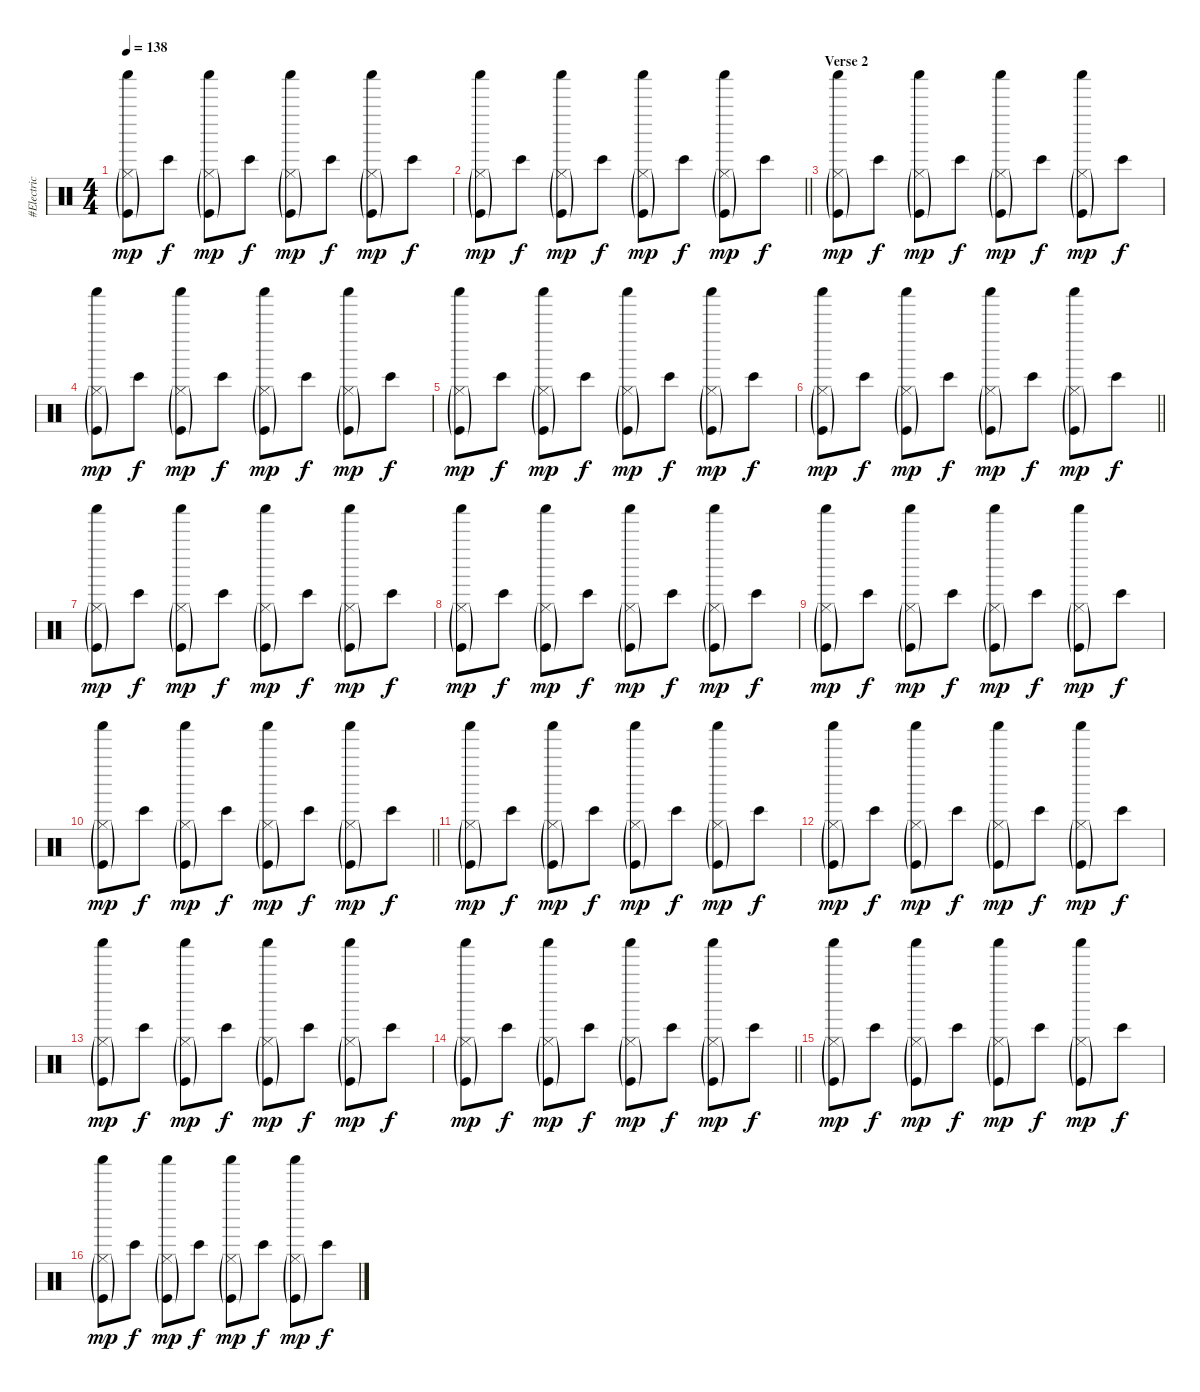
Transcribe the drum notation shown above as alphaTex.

\track ("#Electric Drums" "#Electric ") {instrument percussion}
\staff {score}
\articulation defaults
\ts (4 4)
\tempo 138
\clef neutral
\ks c
("Kick (hit)"{g} "Shaker (hit)" "Hi-Hat (closed)"{g}).8{dy mp} "Bongo High (hit)".8{dy f} ("Kick (hit)"{g} "Shaker (hit)" "Hi-Hat (closed)"{g}).8{dy mp} "Bongo High (hit)".8{dy f} ("Kick (hit)"{g} "Shaker (hit)" "Hi-Hat (closed)"{g}).8{dy mp} "Bongo High (hit)".8{dy f} ("Kick (hit)"{g} "Shaker (hit)" "Hi-Hat (closed)"{g}).8{dy mp} "Bongo High (hit)".8{dy f} |
\barLineRight lightlight
("Kick (hit)"{g} "Shaker (hit)" "Hi-Hat (closed)"{g}).8{dy mp} "Bongo High (hit)".8{dy f} ("Kick (hit)"{g} "Shaker (hit)" "Hi-Hat (closed)"{g}).8{dy mp} "Bongo High (hit)".8{dy f} ("Kick (hit)"{g} "Shaker (hit)" "Hi-Hat (closed)"{g}).8{dy mp} "Bongo High (hit)".8{dy f} ("Kick (hit)"{g} "Shaker (hit)" "Hi-Hat (closed)"{g}).8{dy mp} "Bongo High (hit)".8{dy f} |
\section ("" "Verse 2")
("Kick (hit)"{g} "Shaker (hit)" "Hi-Hat (closed)"{g}).8{dy mp} "Bongo High (hit)".8{dy f} ("Kick (hit)"{g} "Shaker (hit)" "Hi-Hat (closed)"{g}).8{dy mp} "Bongo High (hit)".8{dy f} ("Kick (hit)"{g} "Shaker (hit)" "Hi-Hat (closed)"{g}).8{dy mp} "Bongo High (hit)".8{dy f} ("Kick (hit)"{g} "Shaker (hit)" "Hi-Hat (closed)"{g}).8{dy mp} "Bongo High (hit)".8{dy f} |
("Kick (hit)"{g} "Shaker (hit)" "Hi-Hat (closed)"{g}).8{dy mp} "Bongo High (hit)".8{dy f} ("Kick (hit)"{g} "Shaker (hit)" "Hi-Hat (closed)"{g}).8{dy mp} "Bongo High (hit)".8{dy f} ("Kick (hit)"{g} "Shaker (hit)" "Hi-Hat (closed)"{g}).8{dy mp} "Bongo High (hit)".8{dy f} ("Kick (hit)"{g} "Shaker (hit)" "Hi-Hat (closed)"{g}).8{dy mp} "Bongo High (hit)".8{dy f} |
("Kick (hit)"{g} "Shaker (hit)" "Hi-Hat (closed)"{g}).8{dy mp} "Bongo High (hit)".8{dy f} ("Kick (hit)"{g} "Shaker (hit)" "Hi-Hat (closed)"{g}).8{dy mp} "Bongo High (hit)".8{dy f} ("Kick (hit)"{g} "Shaker (hit)" "Hi-Hat (closed)"{g}).8{dy mp} "Bongo High (hit)".8{dy f} ("Kick (hit)"{g} "Shaker (hit)" "Hi-Hat (closed)"{g}).8{dy mp} "Bongo High (hit)".8{dy f} |
\barLineRight lightlight
("Kick (hit)"{g} "Shaker (hit)" "Hi-Hat (closed)"{g}).8{dy mp} "Bongo High (hit)".8{dy f} ("Kick (hit)"{g} "Shaker (hit)" "Hi-Hat (closed)"{g}).8{dy mp} "Bongo High (hit)".8{dy f} ("Kick (hit)"{g} "Shaker (hit)" "Hi-Hat (closed)"{g}).8{dy mp} "Bongo High (hit)".8{dy f} ("Kick (hit)"{g} "Shaker (hit)" "Hi-Hat (closed)"{g}).8{dy mp} "Bongo High (hit)".8{dy f} |
("Kick (hit)"{g} "Shaker (hit)" "Hi-Hat (closed)"{g}).8{dy mp} "Bongo High (hit)".8{dy f} ("Kick (hit)"{g} "Shaker (hit)" "Hi-Hat (closed)"{g}).8{dy mp} "Bongo High (hit)".8{dy f} ("Kick (hit)"{g} "Shaker (hit)" "Hi-Hat (closed)"{g}).8{dy mp} "Bongo High (hit)".8{dy f} ("Kick (hit)"{g} "Shaker (hit)" "Hi-Hat (closed)"{g}).8{dy mp} "Bongo High (hit)".8{dy f} |
("Kick (hit)"{g} "Shaker (hit)" "Hi-Hat (closed)"{g}).8{dy mp} "Bongo High (hit)".8{dy f} ("Kick (hit)"{g} "Shaker (hit)" "Hi-Hat (closed)"{g}).8{dy mp} "Bongo High (hit)".8{dy f} ("Kick (hit)"{g} "Shaker (hit)" "Hi-Hat (closed)"{g}).8{dy mp} "Bongo High (hit)".8{dy f} ("Kick (hit)"{g} "Shaker (hit)" "Hi-Hat (closed)"{g}).8{dy mp} "Bongo High (hit)".8{dy f} |
("Kick (hit)"{g} "Shaker (hit)" "Hi-Hat (closed)"{g}).8{dy mp} "Bongo High (hit)".8{dy f} ("Kick (hit)"{g} "Shaker (hit)" "Hi-Hat (closed)"{g}).8{dy mp} "Bongo High (hit)".8{dy f} ("Kick (hit)"{g} "Shaker (hit)" "Hi-Hat (closed)"{g}).8{dy mp} "Bongo High (hit)".8{dy f} ("Kick (hit)"{g} "Shaker (hit)" "Hi-Hat (closed)"{g}).8{dy mp} "Bongo High (hit)".8{dy f} |
\barLineRight lightlight
("Kick (hit)"{g} "Shaker (hit)" "Hi-Hat (closed)"{g}).8{dy mp} "Bongo High (hit)".8{dy f} ("Kick (hit)"{g} "Shaker (hit)" "Hi-Hat (closed)"{g}).8{dy mp} "Bongo High (hit)".8{dy f} ("Kick (hit)"{g} "Shaker (hit)" "Hi-Hat (closed)"{g}).8{dy mp} "Bongo High (hit)".8{dy f} ("Kick (hit)"{g} "Shaker (hit)" "Hi-Hat (closed)"{g}).8{dy mp} "Bongo High (hit)".8{dy f} |
("Kick (hit)"{g} "Shaker (hit)" "Hi-Hat (closed)"{g}).8{dy mp} "Bongo High (hit)".8{dy f} ("Kick (hit)"{g} "Shaker (hit)" "Hi-Hat (closed)"{g}).8{dy mp} "Bongo High (hit)".8{dy f} ("Kick (hit)"{g} "Shaker (hit)" "Hi-Hat (closed)"{g}).8{dy mp} "Bongo High (hit)".8{dy f} ("Kick (hit)"{g} "Shaker (hit)" "Hi-Hat (closed)"{g}).8{dy mp} "Bongo High (hit)".8{dy f} |
("Kick (hit)"{g} "Shaker (hit)" "Hi-Hat (closed)"{g}).8{dy mp} "Bongo High (hit)".8{dy f} ("Kick (hit)"{g} "Shaker (hit)" "Hi-Hat (closed)"{g}).8{dy mp} "Bongo High (hit)".8{dy f} ("Kick (hit)"{g} "Shaker (hit)" "Hi-Hat (closed)"{g}).8{dy mp} "Bongo High (hit)".8{dy f} ("Kick (hit)"{g} "Shaker (hit)" "Hi-Hat (closed)"{g}).8{dy mp} "Bongo High (hit)".8{dy f} |
("Kick (hit)"{g} "Shaker (hit)" "Hi-Hat (closed)"{g}).8{dy mp} "Bongo High (hit)".8{dy f} ("Kick (hit)"{g} "Shaker (hit)" "Hi-Hat (closed)"{g}).8{dy mp} "Bongo High (hit)".8{dy f} ("Kick (hit)"{g} "Shaker (hit)" "Hi-Hat (closed)"{g}).8{dy mp} "Bongo High (hit)".8{dy f} ("Kick (hit)"{g} "Shaker (hit)" "Hi-Hat (closed)"{g}).8{dy mp} "Bongo High (hit)".8{dy f} |
\barLineRight lightlight
("Kick (hit)"{g} "Shaker (hit)" "Hi-Hat (closed)"{g}).8{dy mp} "Bongo High (hit)".8{dy f} ("Kick (hit)"{g} "Shaker (hit)" "Hi-Hat (closed)"{g}).8{dy mp} "Bongo High (hit)".8{dy f} ("Kick (hit)"{g} "Shaker (hit)" "Hi-Hat (closed)"{g}).8{dy mp} "Bongo High (hit)".8{dy f} ("Kick (hit)"{g} "Shaker (hit)" "Hi-Hat (closed)"{g}).8{dy mp} "Bongo High (hit)".8{dy f} |
("Kick (hit)"{g} "Shaker (hit)" "Hi-Hat (closed)"{g}).8{dy mp} "Bongo High (hit)".8{dy f} ("Kick (hit)"{g} "Shaker (hit)" "Hi-Hat (closed)"{g}).8{dy mp} "Bongo High (hit)".8{dy f} ("Kick (hit)"{g} "Shaker (hit)" "Hi-Hat (closed)"{g}).8{dy mp} "Bongo High (hit)".8{dy f} ("Kick (hit)"{g} "Shaker (hit)" "Hi-Hat (closed)"{g}).8{dy mp} "Bongo High (hit)".8{dy f} |
("Kick (hit)"{g} "Shaker (hit)" "Hi-Hat (closed)"{g}).8{dy mp} "Bongo High (hit)".8{dy f} ("Kick (hit)"{g} "Shaker (hit)" "Hi-Hat (closed)"{g}).8{dy mp} "Bongo High (hit)".8{dy f} ("Kick (hit)"{g} "Shaker (hit)" "Hi-Hat (closed)"{g}).8{dy mp} "Bongo High (hit)".8{dy f} ("Kick (hit)"{g} "Shaker (hit)" "Hi-Hat (closed)"{g}).8{dy mp} "Bongo High (hit)".8{dy f}
